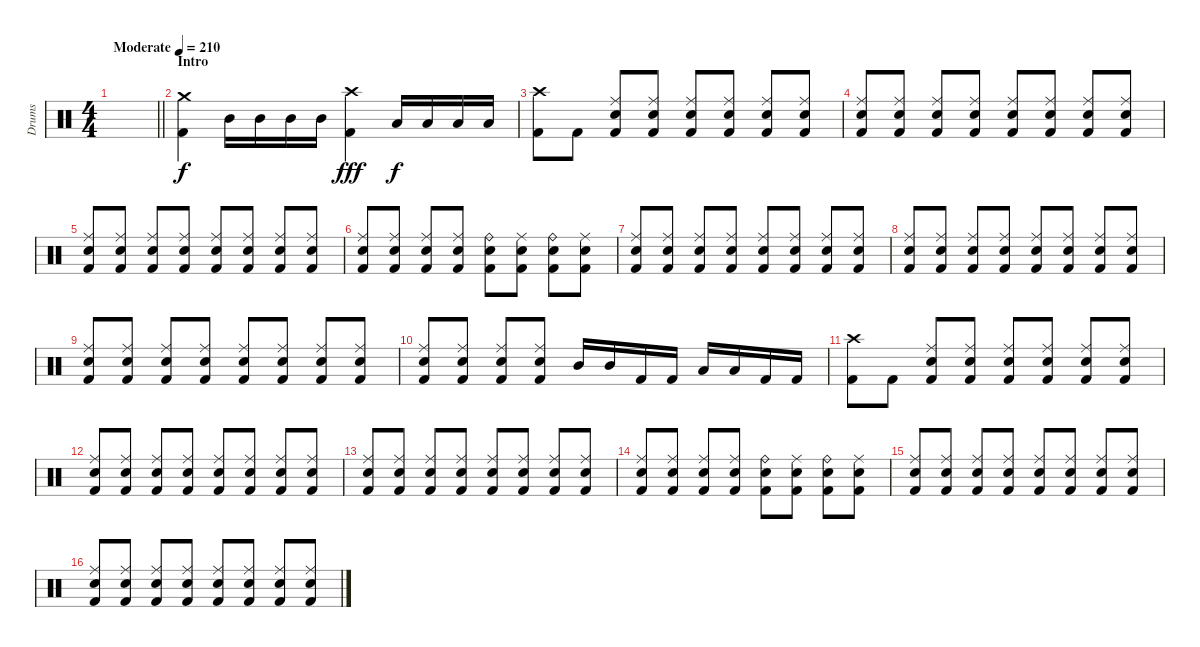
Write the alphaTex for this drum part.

\track ("Drums" "Drums") {instrument percussion}
\staff {score}
\articulation defaults
\ts (4 4)
\tempo (210 "Moderate")
\clef neutral
\barLineRight lightlight
\ks c
|
\section ("" "Intro")
("Crash medium (hit)" "Kick (hit) 2").4 "Mid Tom (hit)".16{dy f} "Mid Tom (hit)".16 "Mid Tom (hit)".16 "Mid Tom (hit)".16 ("Crash high (hit)" "Kick (hit) 2").4{dy fff} "Low Tom (hit)".16{dy f} "Low Tom (hit)".16 "Low Tom (hit)".16 "Low Tom (hit)".16 |
("Crash high (hit)" "Kick (hit) 2").8 "Kick (hit) 2".8 ("Ride (middle)" "Snare (hit) 2" "Kick (hit) 2").8 ("Ride (middle)" "Snare (hit) 2" "Kick (hit) 2").8 ("Ride (middle)" "Snare (hit) 2" "Kick (hit) 2").8 ("Ride (middle)" "Snare (hit) 2" "Kick (hit) 2").8 ("Ride (middle)" "Snare (hit) 2" "Kick (hit) 2").8 ("Ride (middle)" "Snare (hit) 2" "Kick (hit) 2").8 |
("Ride (middle)" "Snare (hit) 2" "Kick (hit) 2").8 ("Ride (middle)" "Snare (hit) 2" "Kick (hit) 2").8 ("Ride (middle)" "Snare (hit) 2" "Kick (hit) 2").8 ("Ride (middle)" "Snare (hit) 2" "Kick (hit) 2").8 ("Ride (middle)" "Snare (hit) 2" "Kick (hit) 2").8 ("Ride (middle)" "Snare (hit) 2" "Kick (hit) 2").8 ("Ride (middle)" "Snare (hit) 2" "Kick (hit) 2").8 ("Ride (middle)" "Snare (hit) 2" "Kick (hit) 2").8 |
("Ride (middle)" "Snare (hit) 2" "Kick (hit) 2").8 ("Ride (middle)" "Snare (hit) 2" "Kick (hit) 2").8 ("Ride (middle)" "Snare (hit) 2" "Kick (hit) 2").8 ("Ride (middle)" "Snare (hit) 2" "Kick (hit) 2").8 ("Ride (middle)" "Snare (hit) 2" "Kick (hit) 2").8 ("Ride (middle)" "Snare (hit) 2" "Kick (hit) 2").8 ("Ride (middle)" "Snare (hit) 2" "Kick (hit) 2").8 ("Ride (middle)" "Snare (hit) 2" "Kick (hit) 2").8 |
("Ride (middle)" "Snare (hit) 2" "Kick (hit) 2").8 ("Ride (middle)" "Snare (hit) 2" "Kick (hit) 2").8 ("Ride (middle)" "Snare (hit) 2" "Kick (hit) 2").8 ("Ride (middle)" "Snare (hit) 2" "Kick (hit) 2").8 ("Ride (bell)" "Snare (hit) 2" "Kick (hit) 2").8 ("Ride (middle)" "Snare (hit) 2" "Kick (hit) 2").8 ("Ride (bell)" "Snare (hit) 2" "Kick (hit) 2").8 ("Ride (middle)" "Snare (hit) 2" "Kick (hit) 2").8 |
("Ride (middle)" "Snare (hit) 2" "Kick (hit) 2").8 ("Ride (middle)" "Snare (hit) 2" "Kick (hit) 2").8 ("Ride (middle)" "Snare (hit) 2" "Kick (hit) 2").8 ("Ride (middle)" "Snare (hit) 2" "Kick (hit) 2").8 ("Ride (middle)" "Snare (hit) 2" "Kick (hit) 2").8 ("Ride (middle)" "Snare (hit) 2" "Kick (hit) 2").8 ("Ride (middle)" "Snare (hit) 2" "Kick (hit) 2").8 ("Ride (middle)" "Snare (hit) 2" "Kick (hit) 2").8 |
("Ride (middle)" "Snare (hit) 2" "Kick (hit) 2").8 ("Ride (middle)" "Snare (hit) 2" "Kick (hit) 2").8 ("Ride (middle)" "Snare (hit) 2" "Kick (hit) 2").8 ("Ride (middle)" "Snare (hit) 2" "Kick (hit) 2").8 ("Ride (middle)" "Snare (hit) 2" "Kick (hit) 2").8 ("Ride (middle)" "Snare (hit) 2" "Kick (hit) 2").8 ("Ride (middle)" "Snare (hit) 2" "Kick (hit) 2").8 ("Ride (middle)" "Snare (hit) 2" "Kick (hit) 2").8 |
("Ride (middle)" "Snare (hit) 2" "Kick (hit) 2").8 ("Ride (middle)" "Snare (hit) 2" "Kick (hit) 2").8 ("Ride (middle)" "Snare (hit) 2" "Kick (hit) 2").8 ("Ride (middle)" "Snare (hit) 2" "Kick (hit) 2").8 ("Ride (middle)" "Snare (hit) 2" "Kick (hit) 2").8 ("Ride (middle)" "Snare (hit) 2" "Kick (hit) 2").8 ("Ride (middle)" "Snare (hit) 2" "Kick (hit) 2").8 ("Ride (middle)" "Snare (hit) 2" "Kick (hit) 2").8 |
("Ride (middle)" "Snare (hit) 2" "Kick (hit) 2").8 ("Ride (middle)" "Snare (hit) 2" "Kick (hit) 2").8 ("Ride (middle)" "Snare (hit) 2" "Kick (hit) 2").8 ("Ride (middle)" "Snare (hit) 2" "Kick (hit) 2").8 "Mid Tom (hit)".16 "Mid Tom (hit)".16 "Kick (hit) 2".16 "Kick (hit) 2".16 "Low Tom (hit)".16 "Low Tom (hit)".16 "Kick (hit) 2".16 "Kick (hit) 2".16 |
("Crash high (hit)" "Kick (hit) 2").8 "Kick (hit) 2".8 ("Ride (middle)" "Snare (hit) 2" "Kick (hit) 2").8 ("Ride (middle)" "Snare (hit) 2" "Kick (hit) 2").8 ("Ride (middle)" "Snare (hit) 2" "Kick (hit) 2").8 ("Ride (middle)" "Snare (hit) 2" "Kick (hit) 2").8 ("Ride (middle)" "Snare (hit) 2" "Kick (hit) 2").8 ("Ride (middle)" "Snare (hit) 2" "Kick (hit) 2").8 |
("Ride (middle)" "Snare (hit) 2" "Kick (hit) 2").8 ("Ride (middle)" "Snare (hit) 2" "Kick (hit) 2").8 ("Ride (middle)" "Snare (hit) 2" "Kick (hit) 2").8 ("Ride (middle)" "Snare (hit) 2" "Kick (hit) 2").8 ("Ride (middle)" "Snare (hit) 2" "Kick (hit) 2").8 ("Ride (middle)" "Snare (hit) 2" "Kick (hit) 2").8 ("Ride (middle)" "Snare (hit) 2" "Kick (hit) 2").8 ("Ride (middle)" "Snare (hit) 2" "Kick (hit) 2").8 |
("Ride (middle)" "Snare (hit) 2" "Kick (hit) 2").8 ("Ride (middle)" "Snare (hit) 2" "Kick (hit) 2").8 ("Ride (middle)" "Snare (hit) 2" "Kick (hit) 2").8 ("Ride (middle)" "Snare (hit) 2" "Kick (hit) 2").8 ("Ride (middle)" "Snare (hit) 2" "Kick (hit) 2").8 ("Ride (middle)" "Snare (hit) 2" "Kick (hit) 2").8 ("Ride (middle)" "Snare (hit) 2" "Kick (hit) 2").8 ("Ride (middle)" "Snare (hit) 2" "Kick (hit) 2").8 |
("Ride (middle)" "Snare (hit) 2" "Kick (hit) 2").8 ("Ride (middle)" "Snare (hit) 2" "Kick (hit) 2").8 ("Ride (middle)" "Snare (hit) 2" "Kick (hit) 2").8 ("Ride (middle)" "Snare (hit) 2" "Kick (hit) 2").8 ("Ride (bell)" "Snare (hit) 2" "Kick (hit) 2").8 ("Ride (middle)" "Snare (hit) 2" "Kick (hit) 2").8 ("Ride (bell)" "Snare (hit) 2" "Kick (hit) 2").8 ("Ride (middle)" "Snare (hit) 2" "Kick (hit) 2").8 |
("Ride (middle)" "Snare (hit) 2" "Kick (hit) 2").8 ("Ride (middle)" "Snare (hit) 2" "Kick (hit) 2").8 ("Ride (middle)" "Snare (hit) 2" "Kick (hit) 2").8 ("Ride (middle)" "Snare (hit) 2" "Kick (hit) 2").8 ("Ride (middle)" "Snare (hit) 2" "Kick (hit) 2").8 ("Ride (middle)" "Snare (hit) 2" "Kick (hit) 2").8 ("Ride (middle)" "Snare (hit) 2" "Kick (hit) 2").8 ("Ride (middle)" "Snare (hit) 2" "Kick (hit) 2").8 |
("Ride (middle)" "Snare (hit) 2" "Kick (hit) 2").8 ("Ride (middle)" "Snare (hit) 2" "Kick (hit) 2").8 ("Ride (middle)" "Snare (hit) 2" "Kick (hit) 2").8 ("Ride (middle)" "Snare (hit) 2" "Kick (hit) 2").8 ("Ride (middle)" "Snare (hit) 2" "Kick (hit) 2").8 ("Ride (middle)" "Snare (hit) 2" "Kick (hit) 2").8 ("Ride (middle)" "Snare (hit) 2" "Kick (hit) 2").8 ("Ride (middle)" "Snare (hit) 2" "Kick (hit) 2").8
